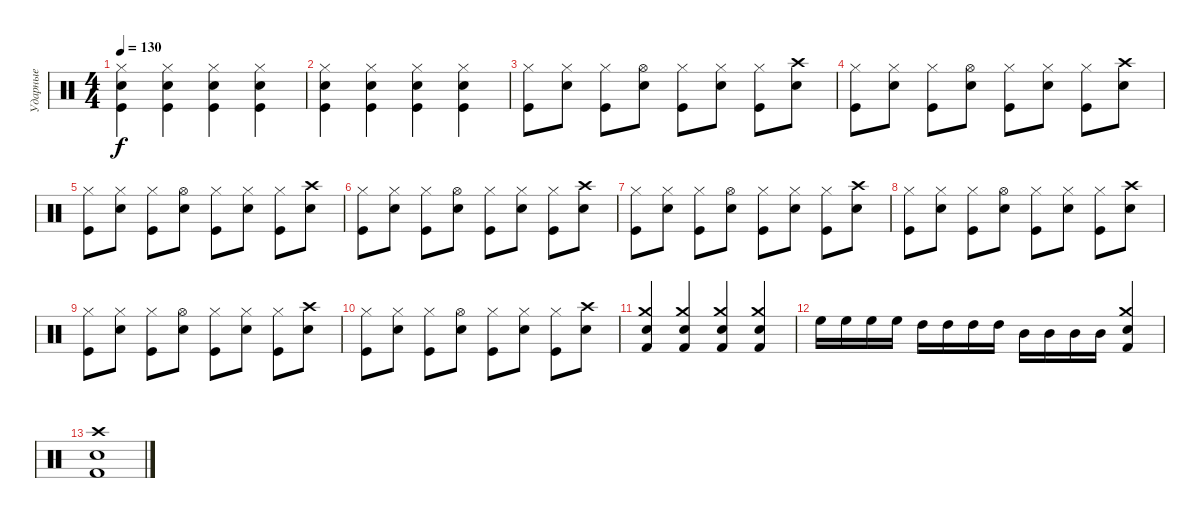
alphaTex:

\track ("Ударные" "Ударные") {instrument percussion}
\staff {score}
\articulation defaults
\ts (4 4)
\tempo 130
\clef neutral
\ks c
("Hi-Hat (closed)" "Snare (hit) 2" "Kick (hit)").4{dy f} ("Hi-Hat (closed)" "Snare (hit) 2" "Kick (hit)").4 ("Hi-Hat (closed)" "Snare (hit) 2" "Kick (hit)").4 ("Hi-Hat (closed)" "Snare (hit) 2" "Kick (hit)").4 |
("Hi-Hat (closed)" "Snare (hit) 2" "Kick (hit)").4 ("Hi-Hat (closed)" "Snare (hit) 2" "Kick (hit)").4 ("Hi-Hat (closed)" "Snare (hit) 2" "Kick (hit)").4 ("Hi-Hat (closed)" "Snare (hit) 2" "Kick (hit)").4 |
("Hi-Hat (closed)" "Kick (hit)").8 ("Hi-Hat (closed)" "Snare (hit) 2").8 ("Hi-Hat (closed)" "Kick (hit)").8 ("Hi-Hat (open)" "Snare (hit) 2").8 ("Hi-Hat (closed)" "Kick (hit)").8 ("Hi-Hat (closed)" "Snare (hit) 2").8 ("Hi-Hat (closed)" "Kick (hit)").8 ("Crash high (hit)" "Snare (hit) 2").8 |
("Hi-Hat (closed)" "Kick (hit)").8 ("Hi-Hat (closed)" "Snare (hit) 2").8 ("Hi-Hat (closed)" "Kick (hit)").8 ("Hi-Hat (open)" "Snare (hit) 2").8 ("Hi-Hat (closed)" "Kick (hit)").8 ("Hi-Hat (closed)" "Snare (hit) 2").8 ("Hi-Hat (closed)" "Kick (hit)").8 ("Crash high (hit)" "Snare (hit) 2").8 |
("Hi-Hat (closed)" "Kick (hit)").8 ("Hi-Hat (closed)" "Snare (hit) 2").8 ("Hi-Hat (closed)" "Kick (hit)").8 ("Hi-Hat (open)" "Snare (hit) 2").8 ("Hi-Hat (closed)" "Kick (hit)").8 ("Hi-Hat (closed)" "Snare (hit) 2").8 ("Hi-Hat (closed)" "Kick (hit)").8 ("Crash high (hit)" "Snare (hit) 2").8 |
("Hi-Hat (closed)" "Kick (hit)").8 ("Hi-Hat (closed)" "Snare (hit) 2").8 ("Hi-Hat (closed)" "Kick (hit)").8 ("Hi-Hat (open)" "Snare (hit) 2").8 ("Hi-Hat (closed)" "Kick (hit)").8 ("Hi-Hat (closed)" "Snare (hit) 2").8 ("Hi-Hat (closed)" "Kick (hit)").8 ("Crash high (hit)" "Snare (hit) 2").8 |
("Hi-Hat (closed)" "Kick (hit)").8 ("Hi-Hat (closed)" "Snare (hit) 2").8 ("Hi-Hat (closed)" "Kick (hit)").8 ("Hi-Hat (open)" "Snare (hit) 2").8 ("Hi-Hat (closed)" "Kick (hit)").8 ("Hi-Hat (closed)" "Snare (hit) 2").8 ("Hi-Hat (closed)" "Kick (hit)").8 ("Crash high (hit)" "Snare (hit) 2").8 |
("Hi-Hat (closed)" "Kick (hit)").8 ("Hi-Hat (closed)" "Snare (hit) 2").8 ("Hi-Hat (closed)" "Kick (hit)").8 ("Hi-Hat (open)" "Snare (hit) 2").8 ("Hi-Hat (closed)" "Kick (hit)").8 ("Hi-Hat (closed)" "Snare (hit) 2").8 ("Hi-Hat (closed)" "Kick (hit)").8 ("Crash high (hit)" "Snare (hit) 2").8 |
("Hi-Hat (closed)" "Kick (hit)").8 ("Hi-Hat (closed)" "Snare (hit) 2").8 ("Hi-Hat (closed)" "Kick (hit)").8 ("Hi-Hat (open)" "Snare (hit) 2").8 ("Hi-Hat (closed)" "Kick (hit)").8 ("Hi-Hat (closed)" "Snare (hit) 2").8 ("Hi-Hat (closed)" "Kick (hit)").8 ("Crash high (hit)" "Snare (hit) 2").8 |
("Hi-Hat (closed)" "Kick (hit)").8 ("Hi-Hat (closed)" "Snare (hit) 2").8 ("Hi-Hat (closed)" "Kick (hit)").8 ("Hi-Hat (open)" "Snare (hit) 2").8 ("Hi-Hat (closed)" "Kick (hit)").8 ("Hi-Hat (closed)" "Snare (hit) 2").8 ("Hi-Hat (closed)" "Kick (hit)").8 ("Crash high (hit)" "Snare (hit) 2").8 |
("Crash medium (hit)" "Snare (hit) 2" "Kick (hit) 2").4 ("Crash medium (hit)" "Snare (hit) 2" "Kick (hit) 2").4 ("Crash medium (hit)" "Snare (hit) 2" "Kick (hit) 2").4 ("Crash medium (hit)" "Snare (hit) 2" "Kick (hit) 2").4 |
"High Floor Tom (hit)".16 "High Floor Tom (hit)".16 "High Floor Tom (hit)".16 "High Floor Tom (hit)".16 "High Tom (hit)".16 "High Tom (hit)".16 "High Tom (hit)".16 "High Tom (hit)".16 "Mid Tom (hit)".16 "Mid Tom (hit)".16 "Mid Tom (hit)".16 "Mid Tom (hit)".16 ("Crash medium (hit)" "Snare (hit) 2" "Kick (hit) 2").4 |
("Crash high (hit)" "Snare (hit) 2" "Kick (hit) 2").1
